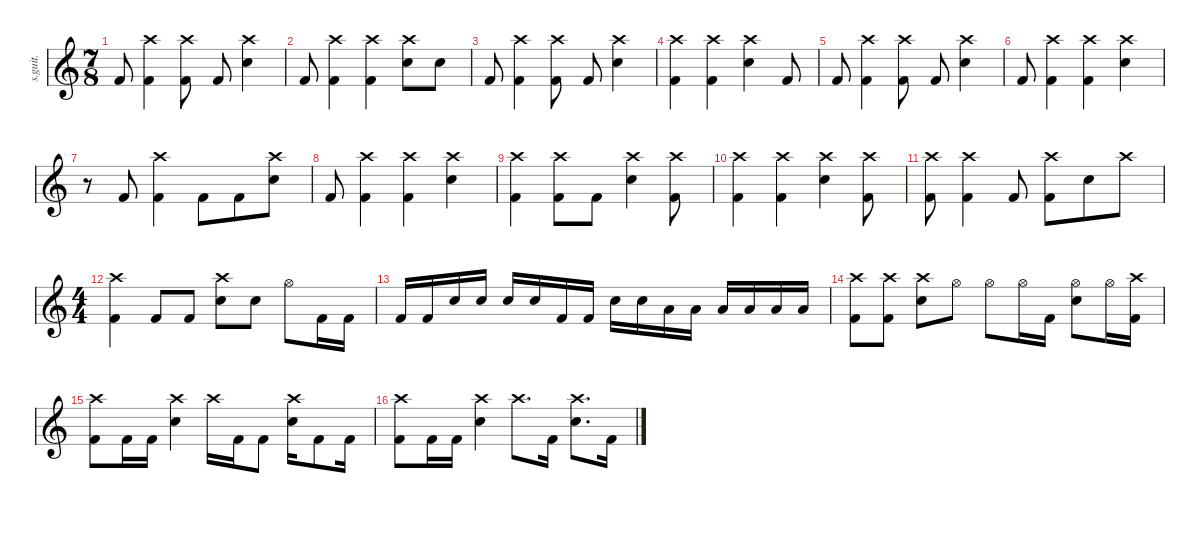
\defaultSystemsLayout 4
\hideDynamics
\bracketExtendMode nobrackets
\track ("" "s.guit.") {instrument percussion}
\staff {score}
\articulation defaults
\ts (7 8)
\tempo (212 hide)
\clef g2
\ks c "Kick (hit) 2".8{lyrics (0 "") lyrics (1 "") lyrics (2 "") lyrics (3 "") lyrics (4 "") dy f}
("Kick (hit) 2" "Crash high (hit)").4{lyrics (0 "") lyrics (1 "") lyrics (2 "") lyrics (3 "") lyrics (4 "")} ("Kick (hit) 2" "Crash high (hit)").8{lyrics (0 "") lyrics (1 "") lyrics (2 "") lyrics (3 "") lyrics (4 "")} "Kick (hit) 2".8{lyrics (0 "") lyrics (1 "") lyrics (2 "") lyrics (3 "") lyrics (4 "")} ("Snare (hit) 2" "Crash high (hit)").4{lyrics (0 "") lyrics (1 "") lyrics (2 "") lyrics (3 "") lyrics (4 "")} |
"Kick (hit) 2".8{lyrics (0 "") lyrics (1 "") lyrics (2 "") lyrics (3 "") lyrics (4 "")} ("Kick (hit) 2" "Crash high (hit)").4{lyrics (0 "") lyrics (1 "") lyrics (2 "") lyrics (3 "") lyrics (4 "")} ("Kick (hit) 2" "Crash high (hit)").4{lyrics (0 "") lyrics (1 "") lyrics (2 "") lyrics (3 "") lyrics (4 "")} ("Snare (hit) 2" "Crash high (hit)").8{lyrics (0 "") lyrics (1 "") lyrics (2 "") lyrics (3 "") lyrics (4 "")} "Snare (hit) 2".8{lyrics (0 "") lyrics (1 "") lyrics (2 "") lyrics (3 "") lyrics (4 "")} |
"Kick (hit) 2".8{lyrics (0 "") lyrics (1 "") lyrics (2 "") lyrics (3 "") lyrics (4 "")} ("Kick (hit) 2" "Crash high (hit)").4{lyrics (0 "") lyrics (1 "") lyrics (2 "") lyrics (3 "") lyrics (4 "")} ("Kick (hit) 2" "Crash high (hit)").8{lyrics (0 "") lyrics (1 "") lyrics (2 "") lyrics (3 "") lyrics (4 "")} "Kick (hit) 2".8{lyrics (0 "") lyrics (1 "") lyrics (2 "") lyrics (3 "") lyrics (4 "")} ("Snare (hit) 2" "Crash high (hit)").4{lyrics (0 "") lyrics (1 "") lyrics (2 "") lyrics (3 "") lyrics (4 "")} |
("Kick (hit) 2" "Crash high (hit)").4{lyrics (0 "") lyrics (1 "") lyrics (2 "") lyrics (3 "") lyrics (4 "")} ("Kick (hit) 2" "Crash high (hit)").4{lyrics (0 "") lyrics (1 "") lyrics (2 "") lyrics (3 "") lyrics (4 "")} ("Snare (hit) 2" "Crash high (hit)").4{lyrics (0 "") lyrics (1 "") lyrics (2 "") lyrics (3 "") lyrics (4 "")} "Kick (hit) 2".8{lyrics (0 "") lyrics (1 "") lyrics (2 "") lyrics (3 "") lyrics (4 "")} |
"Kick (hit) 2".8{lyrics (0 "") lyrics (1 "") lyrics (2 "") lyrics (3 "") lyrics (4 "")} ("Kick (hit) 2" "Crash high (hit)").4{lyrics (0 "") lyrics (1 "") lyrics (2 "") lyrics (3 "") lyrics (4 "")} ("Kick (hit) 2" "Crash high (hit)").8{lyrics (0 "") lyrics (1 "") lyrics (2 "") lyrics (3 "") lyrics (4 "")} "Kick (hit) 2".8{lyrics (0 "") lyrics (1 "") lyrics (2 "") lyrics (3 "") lyrics (4 "")} ("Snare (hit) 2" "Crash high (hit)").4{lyrics (0 "") lyrics (1 "") lyrics (2 "") lyrics (3 "") lyrics (4 "")} |
"Kick (hit) 2".8{lyrics (0 "") lyrics (1 "") lyrics (2 "") lyrics (3 "") lyrics (4 "")} ("Kick (hit) 2" "Crash high (hit)").4{lyrics (0 "") lyrics (1 "") lyrics (2 "") lyrics (3 "") lyrics (4 "")} ("Kick (hit) 2" "Crash high (hit)").4{lyrics (0 "") lyrics (1 "") lyrics (2 "") lyrics (3 "") lyrics (4 "")} ("Snare (hit) 2" "Crash high (hit)").4{lyrics (0 "") lyrics (1 "") lyrics (2 "") lyrics (3 "") lyrics (4 "")} |
r.8 "Kick (hit) 2".8{lyrics (0 "") lyrics (1 "") lyrics (2 "") lyrics (3 "") lyrics (4 "")} ("Kick (hit) 2" "Crash high (hit)").4{lyrics (0 "") lyrics (1 "") lyrics (2 "") lyrics (3 "") lyrics (4 "")} "Kick (hit) 2".8{lyrics (0 "") lyrics (1 "") lyrics (2 "") lyrics (3 "") lyrics (4 "")} "Kick (hit) 2".8{lyrics (0 "") lyrics (1 "") lyrics (2 "") lyrics (3 "") lyrics (4 "")} ("Snare (hit) 2" "Crash high (hit)").8{lyrics (0 "") lyrics (1 "") lyrics (2 "") lyrics (3 "") lyrics (4 "")} |
"Kick (hit) 2".8{lyrics (0 "") lyrics (1 "") lyrics (2 "") lyrics (3 "") lyrics (4 "")} ("Kick (hit) 2" "Crash high (hit)").4{lyrics (0 "") lyrics (1 "") lyrics (2 "") lyrics (3 "") lyrics (4 "")} ("Kick (hit) 2" "Crash high (hit)").4{lyrics (0 "") lyrics (1 "") lyrics (2 "") lyrics (3 "") lyrics (4 "")} ("Snare (hit) 2" "Crash high (hit)").4{lyrics (0 "") lyrics (1 "") lyrics (2 "") lyrics (3 "") lyrics (4 "")} |
("Kick (hit) 2" "Crash high (hit)").4{lyrics (0 "") lyrics (1 "") lyrics (2 "") lyrics (3 "") lyrics (4 "")} ("Kick (hit) 2" "Crash high (hit)").8{lyrics (0 "") lyrics (1 "") lyrics (2 "") lyrics (3 "") lyrics (4 "")} "Kick (hit) 2".8{lyrics (0 "") lyrics (1 "") lyrics (2 "") lyrics (3 "") lyrics (4 "")} ("Snare (hit) 2" "Crash high (hit)").4{lyrics (0 "") lyrics (1 "") lyrics (2 "") lyrics (3 "") lyrics (4 "")} ("Kick (hit) 2" "Crash high (hit)").8{lyrics (0 "") lyrics (1 "") lyrics (2 "") lyrics (3 "") lyrics (4 "")} |
("Kick (hit) 2" "Crash high (hit)").4{lyrics (0 "") lyrics (1 "") lyrics (2 "") lyrics (3 "") lyrics (4 "")} ("Kick (hit) 2" "Crash high (hit)").4{lyrics (0 "") lyrics (1 "") lyrics (2 "") lyrics (3 "") lyrics (4 "")} ("Snare (hit) 2" "Crash high (hit)").4{lyrics (0 "") lyrics (1 "") lyrics (2 "") lyrics (3 "") lyrics (4 "")} ("Kick (hit) 2" "Crash high (hit)").8{lyrics (0 "") lyrics (1 "") lyrics (2 "") lyrics (3 "") lyrics (4 "")} |
("Kick (hit) 2" "Crash high (hit)").8{lyrics (0 "") lyrics (1 "") lyrics (2 "") lyrics (3 "") lyrics (4 "")} ("Kick (hit) 2" "Crash high (hit)").4{lyrics (0 "") lyrics (1 "") lyrics (2 "") lyrics (3 "") lyrics (4 "")} "Kick (hit) 2".8{lyrics (0 "") lyrics (1 "") lyrics (2 "") lyrics (3 "") lyrics (4 "")} ("Kick (hit) 2" "Crash high (hit)").8{lyrics (0 "") lyrics (1 "") lyrics (2 "") lyrics (3 "") lyrics (4 "")} "Snare (hit) 2".8{lyrics (0 "") lyrics (1 "") lyrics (2 "") lyrics (3 "") lyrics (4 "")} "Crash high (hit)".8{lyrics (0 "") lyrics (1 "") lyrics (2 "") lyrics (3 "") lyrics (4 "")} |
\ts (4 4)
\beaming (8 2 2 2 2)
("Kick (hit) 2" "Crash high (hit)").4{lyrics (0 "") lyrics (1 "") lyrics (2 "") lyrics (3 "") lyrics (4 "")} "Kick (hit) 2".8{lyrics (0 "") lyrics (1 "") lyrics (2 "") lyrics (3 "") lyrics (4 "")} "Kick (hit) 2".8{lyrics (0 "") lyrics (1 "") lyrics (2 "") lyrics (3 "") lyrics (4 "")} ("Snare (hit) 2" "Crash high (hit)").8{lyrics (0 "") lyrics (1 "") lyrics (2 "") lyrics (3 "") lyrics (4 "")} "Snare (hit) 2".8{lyrics (0 "") lyrics (1 "") lyrics (2 "") lyrics (3 "") lyrics (4 "")} "Hi-Hat (open)".8{lyrics (0 "") lyrics (1 "") lyrics (2 "") lyrics (3 "") lyrics (4 "")} "Kick (hit) 2".16{lyrics (0 "") lyrics (1 "") lyrics (2 "") lyrics (3 "") lyrics (4 "")} "Kick (hit) 2".16{lyrics (0 "") lyrics (1 "") lyrics (2 "") lyrics (3 "") lyrics (4 "")} |
"Kick (hit) 2".16{lyrics (0 "") lyrics (1 "") lyrics (2 "") lyrics (3 "") lyrics (4 "")} "Kick (hit) 2".16{lyrics (0 "") lyrics (1 "") lyrics (2 "") lyrics (3 "") lyrics (4 "")} "Snare (hit) 2".16{lyrics (0 "") lyrics (1 "") lyrics (2 "") lyrics (3 "") lyrics (4 "")} "Snare (hit) 2".16{lyrics (0 "") lyrics (1 "") lyrics (2 "") lyrics (3 "") lyrics (4 "")} "Snare (hit) 2".16{lyrics (0 "") lyrics (1 "") lyrics (2 "") lyrics (3 "") lyrics (4 "")} "Snare (hit) 2".16{lyrics (0 "") lyrics (1 "") lyrics (2 "") lyrics (3 "") lyrics (4 "")} "Kick (hit) 2".16{lyrics (0 "") lyrics (1 "") lyrics (2 "") lyrics (3 "") lyrics (4 "")} "Kick (hit) 2".16{lyrics (0 "") lyrics (1 "") lyrics (2 "") lyrics (3 "") lyrics (4 "")} "Snare (hit) 2".16{lyrics (0 "") lyrics (1 "") lyrics (2 "") lyrics (3 "") lyrics (4 "")} "Snare (hit) 2".16{lyrics (0 "") lyrics (1 "") lyrics (2 "") lyrics (3 "") lyrics (4 "")} "Low Tom (hit)".16{lyrics (0 "") lyrics (1 "") lyrics (2 "") lyrics (3 "") lyrics (4 "")} "Low Tom (hit)".16{lyrics (0 "") lyrics (1 "") lyrics (2 "") lyrics (3 "") lyrics (4 "")} "Low Tom (hit)".16{lyrics (0 "") lyrics (1 "") lyrics (2 "") lyrics (3 "") lyrics (4 "")} "Low Tom (hit)".16{lyrics (0 "") lyrics (1 "") lyrics (2 "") lyrics (3 "") lyrics (4 "")} "Low Floor Tom (hit)".16{lyrics (0 "") lyrics (1 "") lyrics (2 "") lyrics (3 "") lyrics (4 "")} "Low Floor Tom (hit)".16{lyrics (0 "") lyrics (1 "") lyrics (2 "") lyrics (3 "") lyrics (4 "")} |
\tempo (106 hide)
("Kick (hit) 2" "Crash high (hit)").8{lyrics (0 "") lyrics (1 "") lyrics (2 "") lyrics (3 "") lyrics (4 "")} ("Kick (hit) 2" "Crash high (hit)").8{lyrics (0 "") lyrics (1 "") lyrics (2 "") lyrics (3 "") lyrics (4 "")} ("Snare (hit) 2" "Crash high (hit)").8{lyrics (0 "") lyrics (1 "") lyrics (2 "") lyrics (3 "") lyrics (4 "")} "Hi-Hat (open)".8{lyrics (0 "") lyrics (1 "") lyrics (2 "") lyrics (3 "") lyrics (4 "")} "Hi-Hat (open)".8{lyrics (0 "") lyrics (1 "") lyrics (2 "") lyrics (3 "") lyrics (4 "")} "Hi-Hat (open)".16{lyrics (0 "") lyrics (1 "") lyrics (2 "") lyrics (3 "") lyrics (4 "")} "Kick (hit) 2".16{lyrics (0 "") lyrics (1 "") lyrics (2 "") lyrics (3 "") lyrics (4 "")} ("Snare (hit) 2" "Hi-Hat (open)").8{lyrics (0 "") lyrics (1 "") lyrics (2 "") lyrics (3 "") lyrics (4 "")} "Hi-Hat (open)".16{lyrics (0 "") lyrics (1 "") lyrics (2 "") lyrics (3 "") lyrics (4 "")} ("Kick (hit) 2" "Crash high (hit)").16{lyrics (0 "") lyrics (1 "") lyrics (2 "") lyrics (3 "") lyrics (4 "")} |
("Kick (hit) 2" "Crash high (hit)").8{lyrics (0 "") lyrics (1 "") lyrics (2 "") lyrics (3 "") lyrics (4 "")} "Kick (hit) 2".16{lyrics (0 "") lyrics (1 "") lyrics (2 "") lyrics (3 "") lyrics (4 "")} "Kick (hit) 2".16{lyrics (0 "") lyrics (1 "") lyrics (2 "") lyrics (3 "") lyrics (4 "")} ("Snare (hit) 2" "Crash high (hit)").4{lyrics (0 "") lyrics (1 "") lyrics (2 "") lyrics (3 "") lyrics (4 "")} "Crash high (hit)".16{lyrics (0 "") lyrics (1 "") lyrics (2 "") lyrics (3 "") lyrics (4 "")} "Kick (hit) 2".16{lyrics (0 "") lyrics (1 "") lyrics (2 "") lyrics (3 "") lyrics (4 "")} "Kick (hit) 2".8{lyrics (0 "") lyrics (1 "") lyrics (2 "") lyrics (3 "") lyrics (4 "")} ("Snare (hit) 2" "Crash high (hit)").16{lyrics (0 "") lyrics (1 "") lyrics (2 "") lyrics (3 "") lyrics (4 "")} "Kick (hit) 2".8{lyrics (0 "") lyrics (1 "") lyrics (2 "") lyrics (3 "") lyrics (4 "")} "Kick (hit) 2".16{lyrics (0 "") lyrics (1 "") lyrics (2 "") lyrics (3 "") lyrics (4 "")} |
("Kick (hit) 2" "Crash high (hit)").8{lyrics (0 "") lyrics (1 "") lyrics (2 "") lyrics (3 "") lyrics (4 "")} "Kick (hit) 2".16{lyrics (0 "") lyrics (1 "") lyrics (2 "") lyrics (3 "") lyrics (4 "")} "Kick (hit) 2".16{lyrics (0 "") lyrics (1 "") lyrics (2 "") lyrics (3 "") lyrics (4 "")} ("Snare (hit) 2" "Crash high (hit)").4{lyrics (0 "") lyrics (1 "") lyrics (2 "") lyrics (3 "") lyrics (4 "")} "Crash high (hit)".8{d lyrics (0 "") lyrics (1 "") lyrics (2 "") lyrics (3 "") lyrics (4 "")} "Kick (hit) 2".16{lyrics (0 "") lyrics (1 "") lyrics (2 "") lyrics (3 "") lyrics (4 "")} ("Snare (hit) 2" "Crash high (hit)").8{d lyrics (0 "") lyrics (1 "") lyrics (2 "") lyrics (3 "") lyrics (4 "")} "Kick (hit) 2".16{lyrics (0 "") lyrics (1 "") lyrics (2 "") lyrics (3 "") lyrics (4 "")}
